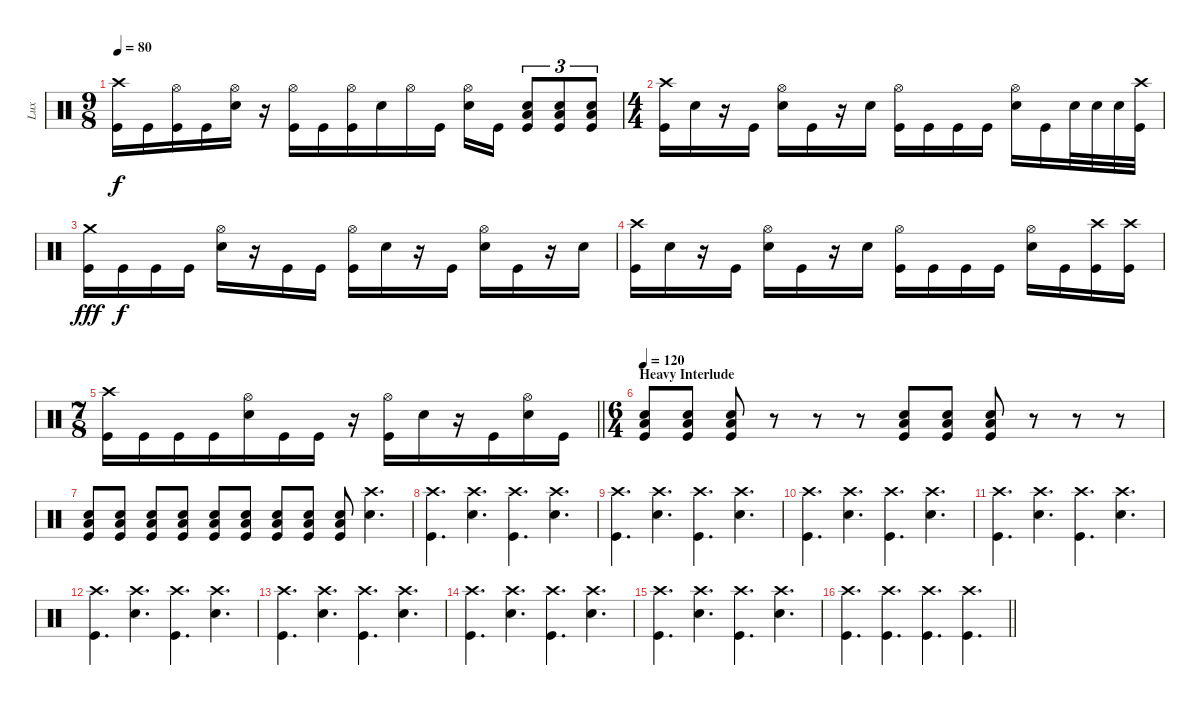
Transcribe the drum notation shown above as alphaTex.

\track ("Lux" "Lux") {solo instrument percussion}
\staff {score}
\articulation defaults
\ts (9 8)
\tempo 80
\clef neutral
\ks c
("Crash high (hit)" "Kick (hit)").16{dy f} "Kick (hit)".16 ("Hi-Hat (open)" "Kick (hit)").16 "Kick (hit)".16 ("Hi-Hat (open)" "Snare (hit) 2").16 r.16 ("Hi-Hat (open)" "Kick (hit)").16 "Kick (hit)".16 ("Hi-Hat (open)" "Kick (hit)").16 "Snare (hit) 2".16 "Hi-Hat (open)".16 "Kick (hit)".16 ("Hi-Hat (open)" "Snare (hit) 2").16 "Kick (hit)".16 ("Low Tom (hit)" "Snare (hit) 2" "Kick (hit)").8{tu (3 2)} ("Low Tom (hit)" "Snare (hit) 2" "Kick (hit)").8{tu (3 2)} ("Low Tom (hit)" "Snare (hit) 2" "Kick (hit)").8{tu (3 2)} |
\ts (4 4)
("Crash high (hit)" "Kick (hit)").16 "Snare (hit) 2".16 r.16 "Kick (hit)".16 ("Hi-Hat (open)" "Snare (hit) 2").16 "Kick (hit)".16 r.16 "Snare (hit) 2".16 ("Hi-Hat (open)" "Kick (hit)").16 "Kick (hit)".16 "Kick (hit)".16 "Kick (hit)".16 ("Hi-Hat (open)" "Snare (hit) 2").16 "Kick (hit)".16 "Snare (hit) 2".32 "Snare (hit) 2".32 "Snare (hit) 2".32 ("Crash high (hit)" "Kick (hit)").32 |
("Crash medium (hit)" "Kick (hit)").16{dy fff} "Kick (hit)".16{dy f} "Kick (hit)".16 "Kick (hit)".16 ("Hi-Hat (open)" "Snare (hit) 2").16 r.16 "Kick (hit)".16 "Kick (hit)".16 ("Hi-Hat (open)" "Kick (hit)").16 "Snare (hit) 2".16 r.16 "Kick (hit)".16 ("Hi-Hat (open)" "Snare (hit) 2").16 "Kick (hit)".16 r.16 "Snare (hit) 2".16 |
("Crash high (hit)" "Kick (hit)").16 "Snare (hit) 2".16 r.16 "Kick (hit)".16 ("Hi-Hat (open)" "Snare (hit) 2").16 "Kick (hit)".16 r.16 "Snare (hit) 2".16 ("Hi-Hat (open)" "Kick (hit)").16 "Kick (hit)".16 "Kick (hit)".16 "Kick (hit)".16 ("Hi-Hat (open)" "Snare (hit) 2").16 "Kick (hit)".16 ("Crash high (hit)" "Kick (hit)").16 ("Crash high (hit)" "Kick (hit)").16 |
\ts (7 8)
\barLineRight lightlight
("Crash high (hit)" "Kick (hit)").16 "Kick (hit)".16 "Kick (hit)".16 "Kick (hit)".16 ("Hi-Hat (open)" "Snare (hit) 2").16 "Kick (hit)".16 "Kick (hit)".16 r.16 ("Hi-Hat (open)" "Kick (hit)").16 "Snare (hit) 2".16 r.16 "Kick (hit)".16 ("Hi-Hat (open)" "Snare (hit) 2").16 "Kick (hit)".16 |
\ts (6 4)
\section ("" "Heavy Interlude")
\tempo 120
("Low Tom (hit)" "Snare (hit) 2" "Kick (hit)").8 ("Low Tom (hit)" "Snare (hit) 2" "Kick (hit)").8 ("Low Tom (hit)" "Snare (hit) 2" "Kick (hit)").8 r.8 r.8 r.8 ("Low Tom (hit)" "Snare (hit) 2" "Kick (hit)").8 ("Low Tom (hit)" "Snare (hit) 2" "Kick (hit)").8 ("Low Tom (hit)" "Snare (hit) 2" "Kick (hit)").8 r.8 r.8 r.8 |
("Low Tom (hit)" "Snare (hit) 2" "Kick (hit)").8 ("Low Tom (hit)" "Snare (hit) 2" "Kick (hit)").8 ("Low Tom (hit)" "Snare (hit) 2" "Kick (hit)").8 ("Low Tom (hit)" "Snare (hit) 2" "Kick (hit)").8 ("Low Tom (hit)" "Snare (hit) 2" "Kick (hit)").8 ("Low Tom (hit)" "Snare (hit) 2" "Kick (hit)").8 ("Low Tom (hit)" "Snare (hit) 2" "Kick (hit)").8 ("Low Tom (hit)" "Snare (hit) 2" "Kick (hit)").8 ("Low Tom (hit)" "Snare (hit) 2" "Kick (hit)").8 ("Crash high (hit)" "Snare (hit) 2").4{d} |
("Crash high (hit)" "Kick (hit)").4{d} ("Crash high (hit)" "Snare (hit) 2").4{d} ("Crash high (hit)" "Kick (hit)").4{d} ("Crash high (hit)" "Snare (hit) 2").4{d} |
("Crash high (hit)" "Kick (hit)").4{d} ("Crash high (hit)" "Snare (hit) 2").4{d} ("Crash high (hit)" "Kick (hit)").4{d} ("Crash high (hit)" "Snare (hit) 2").4{d} |
("Crash high (hit)" "Kick (hit)").4{d} ("Crash high (hit)" "Snare (hit) 2").4{d} ("Crash high (hit)" "Kick (hit)").4{d} ("Crash high (hit)" "Snare (hit) 2").4{d} |
("Crash high (hit)" "Kick (hit)").4{d} ("Crash high (hit)" "Snare (hit) 2").4{d} ("Crash high (hit)" "Kick (hit)").4{d} ("Crash high (hit)" "Snare (hit) 2").4{d} |
("Crash high (hit)" "Kick (hit)").4{d} ("Crash high (hit)" "Snare (hit) 2").4{d} ("Crash high (hit)" "Kick (hit)").4{d} ("Crash high (hit)" "Snare (hit) 2").4{d} |
("Crash high (hit)" "Kick (hit)").4{d} ("Crash high (hit)" "Snare (hit) 2").4{d} ("Crash high (hit)" "Kick (hit)").4{d} ("Crash high (hit)" "Snare (hit) 2").4{d} |
("Crash high (hit)" "Kick (hit)").4{d} ("Crash high (hit)" "Snare (hit) 2").4{d} ("Crash high (hit)" "Kick (hit)").4{d} ("Crash high (hit)" "Snare (hit) 2").4{d} |
("Crash high (hit)" "Kick (hit)").4{d} ("Crash high (hit)" "Snare (hit) 2").4{d} ("Crash high (hit)" "Kick (hit)").4{d} ("Crash high (hit)" "Snare (hit) 2").4{d} |
\barLineRight lightlight
("Crash high (hit)" "Kick (hit)").4{d} ("Crash high (hit)" "Kick (hit)").4{d} ("Crash high (hit)" "Kick (hit)").4{d} ("Crash high (hit)" "Kick (hit)").4{d}
